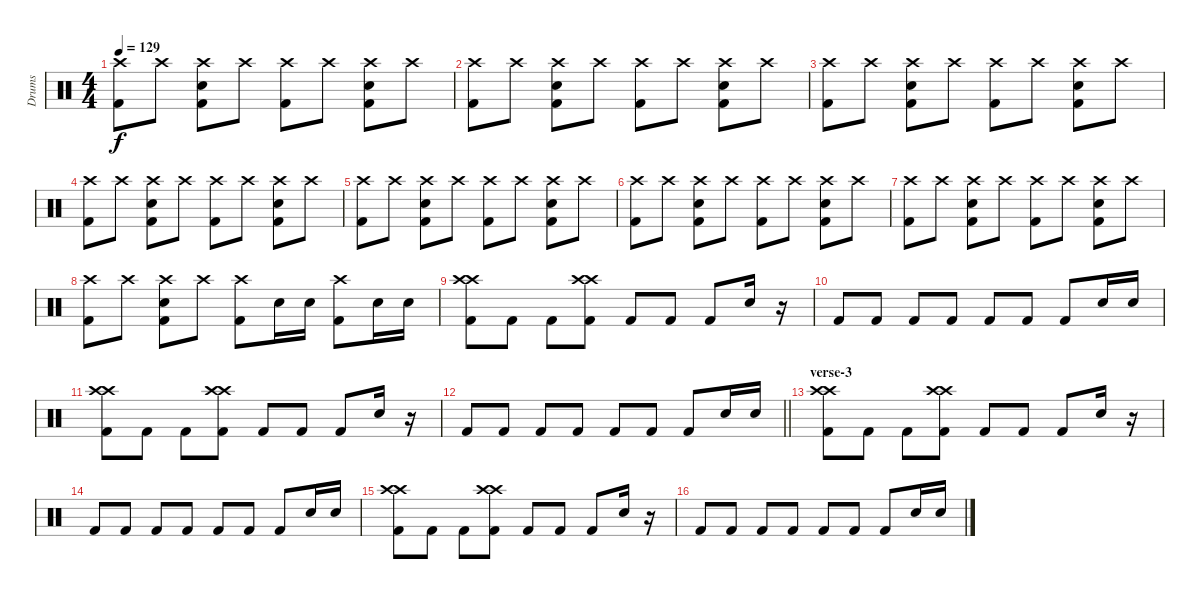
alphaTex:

\track ("Drums" "Drums") {instrument percussion}
\staff {score}
\articulation defaults
\ts (4 4)
\tempo 129
\clef neutral
\ks c
("Crash high (hit)" "Kick (hit) 2").8{dy f} "Crash high (hit)".8 ("Crash high (hit)" "Snare (hit) 2" "Kick (hit) 2").8 "Crash high (hit)".8 ("Crash high (hit)" "Kick (hit) 2").8 "Crash high (hit)".8 ("Crash high (hit)" "Snare (hit) 2" "Kick (hit) 2").8 "Crash high (hit)".8 |
("Crash high (hit)" "Kick (hit) 2").8 "Crash high (hit)".8 ("Crash high (hit)" "Snare (hit) 2" "Kick (hit) 2").8 "Crash high (hit)".8 ("Crash high (hit)" "Kick (hit) 2").8 "Crash high (hit)".8 ("Crash high (hit)" "Snare (hit) 2" "Kick (hit) 2").8 "Crash high (hit)".8 |
("Crash high (hit)" "Kick (hit) 2").8 "Crash high (hit)".8 ("Crash high (hit)" "Snare (hit) 2" "Kick (hit) 2").8 "Crash high (hit)".8 ("Crash high (hit)" "Kick (hit) 2").8 "Crash high (hit)".8 ("Crash high (hit)" "Snare (hit) 2" "Kick (hit) 2").8 "Crash high (hit)".8 |
("Crash high (hit)" "Kick (hit) 2").8 "Crash high (hit)".8 ("Crash high (hit)" "Snare (hit) 2" "Kick (hit) 2").8 "Crash high (hit)".8 ("Crash high (hit)" "Kick (hit) 2").8 "Crash high (hit)".8 ("Crash high (hit)" "Snare (hit) 2" "Kick (hit) 2").8 "Crash high (hit)".8 |
("Crash high (hit)" "Kick (hit) 2").8 "Crash high (hit)".8 ("Crash high (hit)" "Snare (hit) 2" "Kick (hit) 2").8 "Crash high (hit)".8 ("Crash high (hit)" "Kick (hit) 2").8 "Crash high (hit)".8 ("Crash high (hit)" "Snare (hit) 2" "Kick (hit) 2").8 "Crash high (hit)".8 |
("Crash high (hit)" "Kick (hit) 2").8 "Crash high (hit)".8 ("Crash high (hit)" "Snare (hit) 2" "Kick (hit) 2").8 "Crash high (hit)".8 ("Crash high (hit)" "Kick (hit) 2").8 "Crash high (hit)".8 ("Crash high (hit)" "Snare (hit) 2" "Kick (hit) 2").8 "Crash high (hit)".8 |
("Crash high (hit)" "Kick (hit) 2").8 "Crash high (hit)".8 ("Crash high (hit)" "Snare (hit) 2" "Kick (hit) 2").8 "Crash high (hit)".8 ("Crash high (hit)" "Kick (hit) 2").8 "Crash high (hit)".8 ("Crash high (hit)" "Snare (hit) 2" "Kick (hit) 2").8 "Crash high (hit)".8 |
("Crash high (hit)" "Kick (hit) 2").8 "Crash high (hit)".8 ("Crash high (hit)" "Snare (hit) 2" "Kick (hit) 2").8 "Crash high (hit)".8 ("Crash high (hit)" "Kick (hit) 2").8 "Snare (hit) 2".16 "Snare (hit) 2".16 ("Crash high (hit)" "Kick (hit) 2").8 "Snare (hit) 2".16 "Snare (hit) 2".16 |
("Crash high (hit)" "Crash high (hit)" "Kick (hit) 2").8 "Kick (hit) 2".8 "Kick (hit) 2".8 ("Crash high (hit)" "Crash high (hit)" "Kick (hit) 2").8 "Kick (hit) 2".8 "Kick (hit) 2".8 "Kick (hit) 2".8 "Snare (hit) 2".16 r.16 |
"Kick (hit) 2".8 "Kick (hit) 2".8 "Kick (hit) 2".8 "Kick (hit) 2".8 "Kick (hit) 2".8 "Kick (hit) 2".8 "Kick (hit) 2".8 "Snare (hit) 2".16 "Snare (hit) 2".16 |
("Crash high (hit)" "Crash high (hit)" "Kick (hit) 2").8 "Kick (hit) 2".8 "Kick (hit) 2".8 ("Crash high (hit)" "Crash high (hit)" "Kick (hit) 2").8 "Kick (hit) 2".8 "Kick (hit) 2".8 "Kick (hit) 2".8 "Snare (hit) 2".16 r.16 |
\barLineRight lightlight "Kick (hit) 2".8 "Kick (hit) 2".8 "Kick (hit) 2".8 "Kick (hit) 2".8 "Kick (hit) 2".8 "Kick (hit) 2".8 "Kick (hit) 2".8 "Snare (hit) 2".16 "Snare (hit) 2".16
|
\section ("" "verse-3")
("Crash high (hit)" "Crash high (hit)" "Kick (hit) 2").8 "Kick (hit) 2".8 "Kick (hit) 2".8 ("Crash high (hit)" "Crash high (hit)" "Kick (hit) 2").8 "Kick (hit) 2".8 "Kick (hit) 2".8 "Kick (hit) 2".8 "Snare (hit) 2".16 r.16 |
"Kick (hit) 2".8 "Kick (hit) 2".8 "Kick (hit) 2".8 "Kick (hit) 2".8 "Kick (hit) 2".8 "Kick (hit) 2".8 "Kick (hit) 2".8 "Snare (hit) 2".16 "Snare (hit) 2".16 |
("Crash high (hit)" "Crash high (hit)" "Kick (hit) 2").8 "Kick (hit) 2".8 "Kick (hit) 2".8 ("Crash high (hit)" "Crash high (hit)" "Kick (hit) 2").8 "Kick (hit) 2".8 "Kick (hit) 2".8 "Kick (hit) 2".8 "Snare (hit) 2".16 r.16 |
"Kick (hit) 2".8 "Kick (hit) 2".8 "Kick (hit) 2".8 "Kick (hit) 2".8 "Kick (hit) 2".8 "Kick (hit) 2".8 "Kick (hit) 2".8 "Snare (hit) 2".16 "Snare (hit) 2".16
